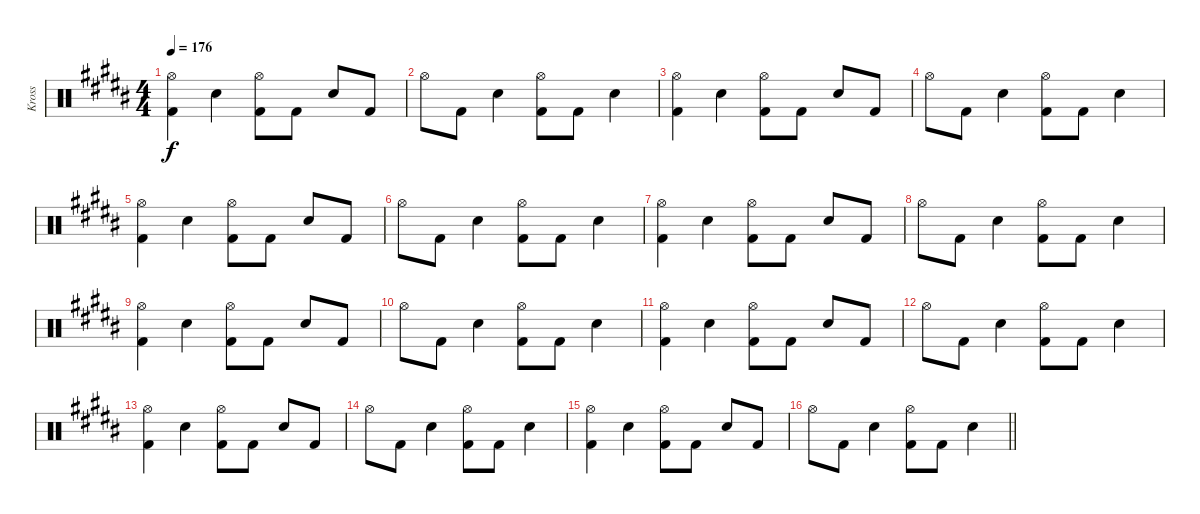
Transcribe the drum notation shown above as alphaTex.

\track ("Kross" "Kross") {instrument percussion}
\staff {score}
\articulation defaults
\ts (4 4)
\tempo 176
\clef neutral
\ks b
("Hi-Hat (open)" "Kick (hit) 2").4{dy f} "Electric Snare (hit)".4 ("Hi-Hat (open)" "Kick (hit) 2").8 "Kick (hit) 2".8 "Electric Snare (hit)".8 "Kick (hit) 2".8 |
"Hi-Hat (open)".8 "Kick (hit) 2".8 "Electric Snare (hit)".4 ("Hi-Hat (open)" "Kick (hit) 2").8 "Kick (hit) 2".8 "Electric Snare (hit)".4 |
("Hi-Hat (open)" "Kick (hit) 2").4 "Electric Snare (hit)".4 ("Hi-Hat (open)" "Kick (hit) 2").8 "Kick (hit) 2".8 "Electric Snare (hit)".8 "Kick (hit) 2".8 |
"Hi-Hat (open)".8 "Kick (hit) 2".8 "Electric Snare (hit)".4 ("Hi-Hat (open)" "Kick (hit) 2").8 "Kick (hit) 2".8 "Electric Snare (hit)".4 |
("Hi-Hat (open)" "Kick (hit) 2").4 "Electric Snare (hit)".4 ("Hi-Hat (open)" "Kick (hit) 2").8 "Kick (hit) 2".8 "Electric Snare (hit)".8 "Kick (hit) 2".8 |
"Hi-Hat (open)".8 "Kick (hit) 2".8 "Electric Snare (hit)".4 ("Hi-Hat (open)" "Kick (hit) 2").8 "Kick (hit) 2".8 "Electric Snare (hit)".4 |
("Hi-Hat (open)" "Kick (hit) 2").4 "Electric Snare (hit)".4 ("Hi-Hat (open)" "Kick (hit) 2").8 "Kick (hit) 2".8 "Electric Snare (hit)".8 "Kick (hit) 2".8 |
"Hi-Hat (open)".8 "Kick (hit) 2".8 "Electric Snare (hit)".4 ("Hi-Hat (open)" "Kick (hit) 2").8 "Kick (hit) 2".8 "Electric Snare (hit)".4 |
("Hi-Hat (open)" "Kick (hit) 2").4 "Electric Snare (hit)".4 ("Hi-Hat (open)" "Kick (hit) 2").8 "Kick (hit) 2".8 "Electric Snare (hit)".8 "Kick (hit) 2".8 |
"Hi-Hat (open)".8 "Kick (hit) 2".8 "Electric Snare (hit)".4 ("Hi-Hat (open)" "Kick (hit) 2").8 "Kick (hit) 2".8 "Electric Snare (hit)".4 |
("Hi-Hat (open)" "Kick (hit) 2").4 "Electric Snare (hit)".4 ("Hi-Hat (open)" "Kick (hit) 2").8 "Kick (hit) 2".8 "Electric Snare (hit)".8 "Kick (hit) 2".8 |
"Hi-Hat (open)".8 "Kick (hit) 2".8 "Electric Snare (hit)".4 ("Hi-Hat (open)" "Kick (hit) 2").8 "Kick (hit) 2".8 "Electric Snare (hit)".4 |
("Hi-Hat (open)" "Kick (hit) 2").4 "Electric Snare (hit)".4 ("Hi-Hat (open)" "Kick (hit) 2").8 "Kick (hit) 2".8 "Electric Snare (hit)".8 "Kick (hit) 2".8 |
"Hi-Hat (open)".8 "Kick (hit) 2".8 "Electric Snare (hit)".4 ("Hi-Hat (open)" "Kick (hit) 2").8 "Kick (hit) 2".8 "Electric Snare (hit)".4 |
("Hi-Hat (open)" "Kick (hit) 2").4 "Electric Snare (hit)".4 ("Hi-Hat (open)" "Kick (hit) 2").8 "Kick (hit) 2".8 "Electric Snare (hit)".8 "Kick (hit) 2".8 |
\barLineRight lightlight "Hi-Hat (open)".8 "Kick (hit) 2".8 "Electric Snare (hit)".4
("Hi-Hat (open)" "Kick (hit) 2").8 "Kick (hit) 2".8 "Electric Snare (hit)".4
